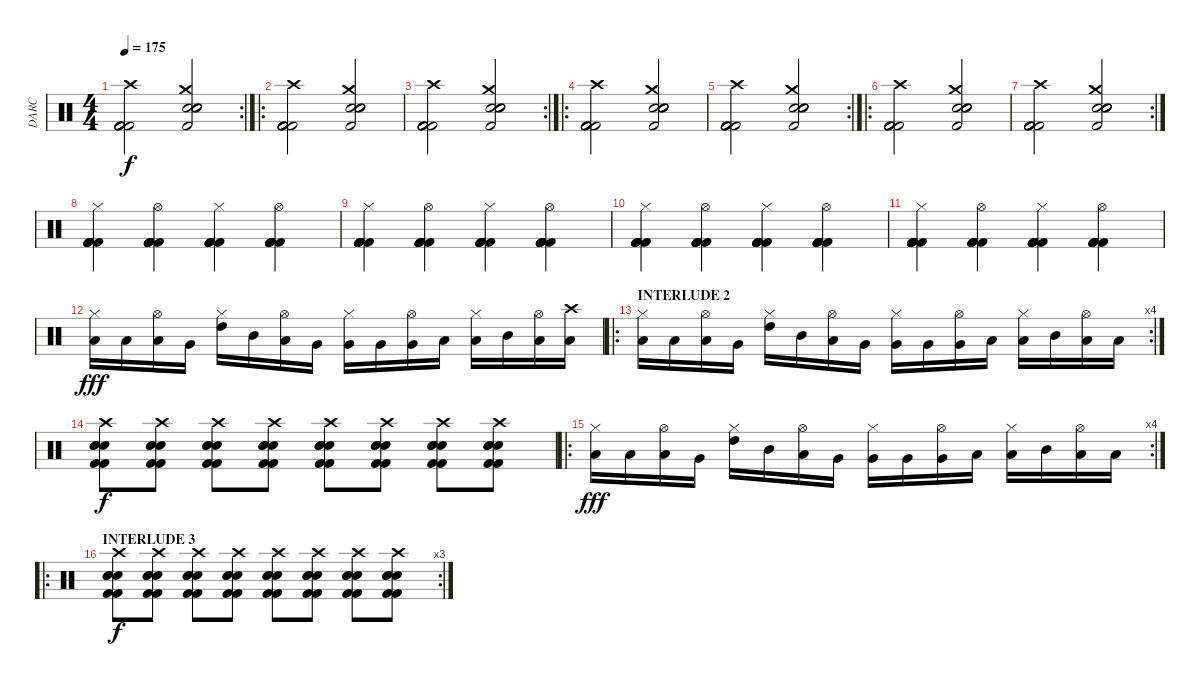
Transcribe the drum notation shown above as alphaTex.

\track ("DARC" "DARC") {instrument percussion}
\staff {score}
\articulation defaults
\rc 2
\ts (4 4)
\tempo 175
\clef neutral
\ks c
("Crash high (hit)" "Kick (hit) 2" "Kick (hit) 2" "Kick (hit) 2" "Kick (hit) 2" "Kick (hit) 2").2{dy f} ("Crash medium (hit)" "Kick (hit) 2" "Electric Snare (hit)" "Electric Snare (hit)" "Electric Snare (hit)" "Electric Snare (hit)").2 |
\ro
("Crash high (hit)" "Kick (hit) 2" "Kick (hit) 2" "Kick (hit) 2" "Kick (hit) 2" "Kick (hit) 2").2 ("Crash medium (hit)" "Kick (hit) 2" "Electric Snare (hit)" "Electric Snare (hit)" "Electric Snare (hit)" "Electric Snare (hit)").2 |
\rc 2
("Crash high (hit)" "Kick (hit) 2" "Kick (hit) 2" "Kick (hit) 2" "Kick (hit) 2" "Kick (hit) 2").2 ("Crash medium (hit)" "Kick (hit) 2" "Electric Snare (hit)" "Electric Snare (hit)" "Electric Snare (hit)" "Electric Snare (hit)").2 |
\ro
("Crash high (hit)" "Kick (hit) 2" "Kick (hit) 2" "Kick (hit) 2" "Kick (hit) 2" "Kick (hit) 2").2 ("Crash medium (hit)" "Kick (hit) 2" "Electric Snare (hit)" "Electric Snare (hit)" "Electric Snare (hit)" "Electric Snare (hit)").2 |
\rc 2
("Crash high (hit)" "Kick (hit) 2" "Kick (hit) 2" "Kick (hit) 2" "Kick (hit) 2" "Kick (hit) 2").2 ("Crash medium (hit)" "Kick (hit) 2" "Electric Snare (hit)" "Electric Snare (hit)" "Electric Snare (hit)" "Electric Snare (hit)").2 |
\ro
("Crash high (hit)" "Kick (hit) 2" "Kick (hit) 2" "Kick (hit) 2" "Kick (hit) 2" "Kick (hit) 2").2 ("Crash medium (hit)" "Kick (hit) 2" "Electric Snare (hit)" "Electric Snare (hit)" "Electric Snare (hit)" "Electric Snare (hit)").2 |
\rc 2
("Crash high (hit)" "Kick (hit) 2" "Kick (hit) 2" "Kick (hit) 2" "Kick (hit) 2" "Kick (hit) 2").2 ("Crash medium (hit)" "Kick (hit) 2" "Electric Snare (hit)" "Electric Snare (hit)" "Electric Snare (hit)" "Electric Snare (hit)").2 |
("Hi-Hat (closed)" "Kick (hit) 2" "Kick (hit) 2" "Kick (hit) 2" "Kick (hit) 2" "Kick (hit) 2").4 ("Hi-Hat (open)" "Kick (hit) 2" "Kick (hit) 2" "Kick (hit) 2" "Kick (hit) 2" "Kick (hit) 2").4 ("Hi-Hat (closed)" "Kick (hit) 2" "Kick (hit) 2" "Kick (hit) 2" "Kick (hit) 2" "Kick (hit) 2").4 ("Hi-Hat (open)" "Kick (hit) 2" "Kick (hit) 2" "Kick (hit) 2" "Kick (hit) 2" "Kick (hit) 2").4 |
("Hi-Hat (closed)" "Kick (hit) 2" "Kick (hit) 2" "Kick (hit) 2" "Kick (hit) 2" "Kick (hit) 2").4 ("Hi-Hat (open)" "Kick (hit) 2" "Kick (hit) 2" "Kick (hit) 2" "Kick (hit) 2" "Kick (hit) 2").4 ("Hi-Hat (closed)" "Kick (hit) 2" "Kick (hit) 2" "Kick (hit) 2" "Kick (hit) 2" "Kick (hit) 2").4 ("Hi-Hat (open)" "Kick (hit) 2" "Kick (hit) 2" "Kick (hit) 2" "Kick (hit) 2" "Kick (hit) 2").4 |
("Hi-Hat (closed)" "Kick (hit) 2" "Kick (hit) 2" "Kick (hit) 2" "Kick (hit) 2" "Kick (hit) 2").4 ("Hi-Hat (open)" "Kick (hit) 2" "Kick (hit) 2" "Kick (hit) 2" "Kick (hit) 2" "Kick (hit) 2").4 ("Hi-Hat (closed)" "Kick (hit) 2" "Kick (hit) 2" "Kick (hit) 2" "Kick (hit) 2" "Kick (hit) 2").4 ("Hi-Hat (open)" "Kick (hit) 2" "Kick (hit) 2" "Kick (hit) 2" "Kick (hit) 2" "Kick (hit) 2").4 |
("Hi-Hat (closed)" "Kick (hit) 2" "Kick (hit) 2" "Kick (hit) 2" "Kick (hit) 2" "Kick (hit) 2").4 ("Hi-Hat (open)" "Kick (hit) 2" "Kick (hit) 2" "Kick (hit) 2" "Kick (hit) 2" "Kick (hit) 2").4 ("Hi-Hat (closed)" "Kick (hit) 2" "Kick (hit) 2" "Kick (hit) 2" "Kick (hit) 2" "Kick (hit) 2").4 ("Hi-Hat (open)" "Kick (hit) 2" "Kick (hit) 2" "Kick (hit) 2" "Kick (hit) 2" "Kick (hit) 2").4 |
("Hi-Hat (closed)" "Low Tom (hit)").16{dy fff} "Low Tom (hit)".16 ("Hi-Hat (open)" "Low Tom (hit)").16 "Very Low Tom (hit)".16 ("Hi-Hat (closed)" "High Tom (hit)").16 "Mid Tom (hit)".16 ("Hi-Hat (open)" "Low Tom (hit)").16 "Very Low Tom (hit)".16 ("Hi-Hat (closed)" "Very Low Tom (hit)").16 "Very Low Tom (hit)".16 ("Hi-Hat (open)" "Very Low Tom (hit)").16 "Low Tom (hit)".16 ("Hi-Hat (closed)" "Low Floor Tom (hit)").16 "Mid Tom (hit)".16 ("Hi-Hat (open)" "Low Floor Tom (hit)").16 ("Crash high (hit)" "Low Tom (hit)").16 |
\ro
\rc 4
\section ("" "INTERLUDE 2")
("Hi-Hat (closed)" "Low Tom (hit)").16 "Low Tom (hit)".16 ("Hi-Hat (open)" "Low Tom (hit)").16 "Very Low Tom (hit)".16 ("Hi-Hat (closed)" "High Tom (hit)").16 "Mid Tom (hit)".16 ("Hi-Hat (open)" "Low Tom (hit)").16 "Very Low Tom (hit)".16 ("Hi-Hat (closed)" "Very Low Tom (hit)").16 "Very Low Tom (hit)".16 ("Hi-Hat (open)" "Very Low Tom (hit)").16 "Low Tom (hit)".16 ("Hi-Hat (closed)" "Low Floor Tom (hit)").16 "Mid Tom (hit)".16 ("Hi-Hat (open)" "Low Floor Tom (hit)").16 "Low Tom (hit)".16 |
("Kick (hit) 2" "Electric Snare (hit)" "Electric Snare (hit)" "Kick (hit) 2" "Crash high (hit)" "Electric Snare (hit)").8{dy f} ("Kick (hit) 2" "Electric Snare (hit)" "Electric Snare (hit)" "Kick (hit) 2" "Crash high (hit)" "Electric Snare (hit)").8 ("Kick (hit) 2" "Electric Snare (hit)" "Electric Snare (hit)" "Kick (hit) 2" "Crash high (hit)" "Electric Snare (hit)").8 ("Kick (hit) 2" "Electric Snare (hit)" "Electric Snare (hit)" "Kick (hit) 2" "Crash high (hit)" "Electric Snare (hit)").8 ("Kick (hit) 2" "Electric Snare (hit)" "Electric Snare (hit)" "Kick (hit) 2" "Crash high (hit)" "Electric Snare (hit)").8 ("Kick (hit) 2" "Electric Snare (hit)" "Electric Snare (hit)" "Kick (hit) 2" "Crash high (hit)" "Electric Snare (hit)").8 ("Kick (hit) 2" "Electric Snare (hit)" "Electric Snare (hit)" "Kick (hit) 2" "Crash high (hit)" "Electric Snare (hit)").8 ("Kick (hit) 2" "Electric Snare (hit)" "Electric Snare (hit)" "Kick (hit) 2" "Crash high (hit)" "Electric Snare (hit)").8 |
\ro
\rc 4
("Hi-Hat (closed)" "Low Tom (hit)").16{dy fff} "Low Tom (hit)".16 ("Hi-Hat (open)" "Low Tom (hit)").16 "Very Low Tom (hit)".16 ("Hi-Hat (closed)" "High Tom (hit)").16 "Mid Tom (hit)".16 ("Hi-Hat (open)" "Low Tom (hit)").16 "Very Low Tom (hit)".16 ("Hi-Hat (closed)" "Very Low Tom (hit)").16 "Very Low Tom (hit)".16 ("Hi-Hat (open)" "Very Low Tom (hit)").16 "Low Tom (hit)".16 ("Hi-Hat (closed)" "Low Floor Tom (hit)").16 "Mid Tom (hit)".16 ("Hi-Hat (open)" "Low Floor Tom (hit)").16 "Low Tom (hit)".16 |
\ro
\rc 3
\section ("" "INTERLUDE 3")
("Kick (hit) 2" "Electric Snare (hit)" "Electric Snare (hit)" "Kick (hit) 2" "Crash high (hit)" "Electric Snare (hit)").8{dy f} ("Kick (hit) 2" "Electric Snare (hit)" "Electric Snare (hit)" "Kick (hit) 2" "Crash high (hit)" "Electric Snare (hit)").8 ("Kick (hit) 2" "Electric Snare (hit)" "Electric Snare (hit)" "Kick (hit) 2" "Crash high (hit)" "Electric Snare (hit)").8 ("Kick (hit) 2" "Electric Snare (hit)" "Electric Snare (hit)" "Kick (hit) 2" "Crash high (hit)" "Electric Snare (hit)").8 ("Kick (hit) 2" "Electric Snare (hit)" "Electric Snare (hit)" "Kick (hit) 2" "Crash high (hit)" "Electric Snare (hit)").8 ("Kick (hit) 2" "Electric Snare (hit)" "Electric Snare (hit)" "Kick (hit) 2" "Crash high (hit)" "Electric Snare (hit)").8 ("Kick (hit) 2" "Electric Snare (hit)" "Electric Snare (hit)" "Kick (hit) 2" "Crash high (hit)" "Electric Snare (hit)").8 ("Kick (hit) 2" "Electric Snare (hit)" "Electric Snare (hit)" "Kick (hit) 2" "Crash high (hit)" "Electric Snare (hit)").8
